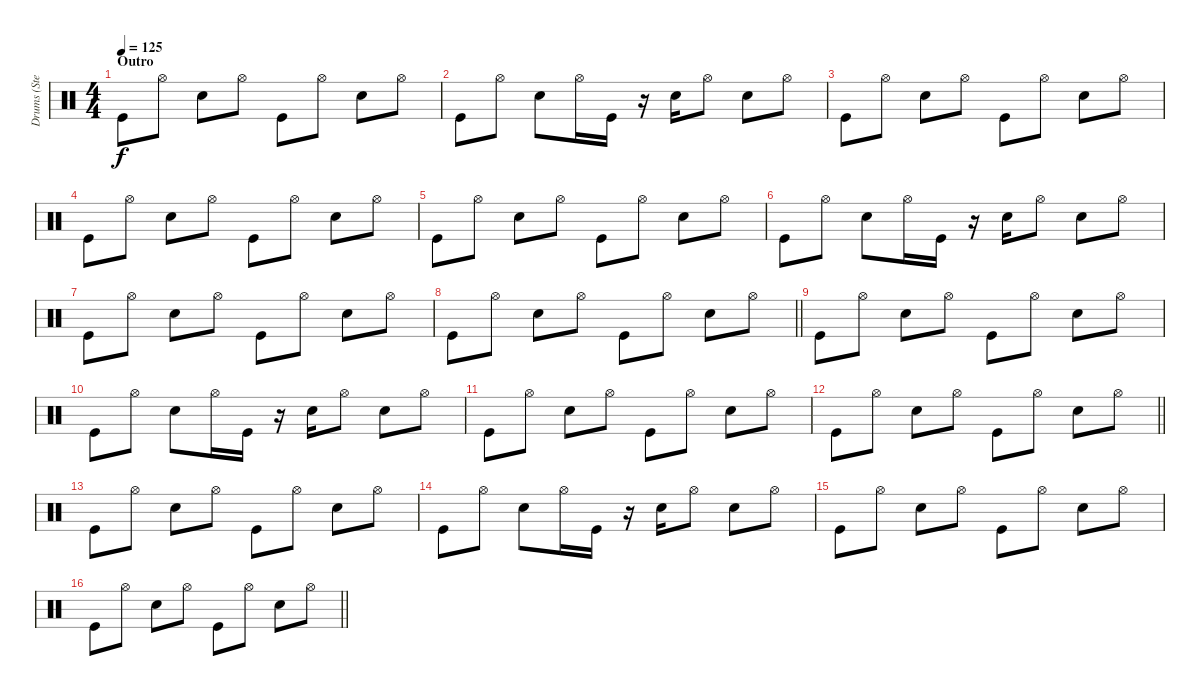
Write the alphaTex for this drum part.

\track ("Drums (Stephen Morris)" "Drums (Ste") {instrument percussion}
\staff {score}
\articulation defaults
\ts (4 4)
\section ("" "Outro")
\tempo 125
\clef neutral
\ks c "Kick (hit)".8{dy f volume 13} "Hi-Hat (open)".8 "Electric Snare (hit)".8 "Hi-Hat (open)".8 "Kick (hit)".8 "Hi-Hat (open)".8 "Electric Snare (hit)".8 "Hi-Hat (open)".8
|
"Kick (hit)".8 "Hi-Hat (open)".8 "Electric Snare (hit)".8 "Hi-Hat (open)".16 "Kick (hit)".16 r.16 "Electric Snare (hit)".16 "Hi-Hat (open)".8 "Electric Snare (hit)".8 "Hi-Hat (open)".8 |
"Kick (hit)".8 "Hi-Hat (open)".8 "Electric Snare (hit)".8 "Hi-Hat (open)".8 "Kick (hit)".8 "Hi-Hat (open)".8 "Electric Snare (hit)".8 "Hi-Hat (open)".8 |
"Kick (hit)".8 "Hi-Hat (open)".8 "Electric Snare (hit)".8 "Hi-Hat (open)".8 "Kick (hit)".8 "Hi-Hat (open)".8 "Electric Snare (hit)".8 "Hi-Hat (open)".8 |
"Kick (hit)".8 "Hi-Hat (open)".8 "Electric Snare (hit)".8 "Hi-Hat (open)".8 "Kick (hit)".8 "Hi-Hat (open)".8 "Electric Snare (hit)".8 "Hi-Hat (open)".8 |
"Kick (hit)".8 "Hi-Hat (open)".8 "Electric Snare (hit)".8 "Hi-Hat (open)".16 "Kick (hit)".16 r.16 "Electric Snare (hit)".16 "Hi-Hat (open)".8 "Electric Snare (hit)".8 "Hi-Hat (open)".8 |
"Kick (hit)".8 "Hi-Hat (open)".8 "Electric Snare (hit)".8 "Hi-Hat (open)".8 "Kick (hit)".8 "Hi-Hat (open)".8 "Electric Snare (hit)".8 "Hi-Hat (open)".8 |
\barLineRight lightlight "Kick (hit)".8 "Hi-Hat (open)".8 "Electric Snare (hit)".8 "Hi-Hat (open)".8 "Kick (hit)".8 "Hi-Hat (open)".8 "Electric Snare (hit)".8 "Hi-Hat (open)".8
|
"Kick (hit)".8 "Hi-Hat (open)".8 "Electric Snare (hit)".8 "Hi-Hat (open)".8 "Kick (hit)".8 "Hi-Hat (open)".8 "Electric Snare (hit)".8 "Hi-Hat (open)".8 |
"Kick (hit)".8 "Hi-Hat (open)".8 "Electric Snare (hit)".8 "Hi-Hat (open)".16 "Kick (hit)".16 r.16 "Electric Snare (hit)".16 "Hi-Hat (open)".8 "Electric Snare (hit)".8 "Hi-Hat (open)".8 |
"Kick (hit)".8 "Hi-Hat (open)".8 "Electric Snare (hit)".8 "Hi-Hat (open)".8 "Kick (hit)".8 "Hi-Hat (open)".8 "Electric Snare (hit)".8 "Hi-Hat (open)".8 |
\barLineRight lightlight "Kick (hit)".8 "Hi-Hat (open)".8 "Electric Snare (hit)".8 "Hi-Hat (open)".8 "Kick (hit)".8 "Hi-Hat (open)".8 "Electric Snare (hit)".8 "Hi-Hat (open)".8
|
"Kick (hit)".8 "Hi-Hat (open)".8 "Electric Snare (hit)".8 "Hi-Hat (open)".8 "Kick (hit)".8 "Hi-Hat (open)".8 "Electric Snare (hit)".8 "Hi-Hat (open)".8 |
"Kick (hit)".8 "Hi-Hat (open)".8 "Electric Snare (hit)".8 "Hi-Hat (open)".16 "Kick (hit)".16 r.16 "Electric Snare (hit)".16 "Hi-Hat (open)".8 "Electric Snare (hit)".8 "Hi-Hat (open)".8 |
"Kick (hit)".8 "Hi-Hat (open)".8 "Electric Snare (hit)".8 "Hi-Hat (open)".8 "Kick (hit)".8 "Hi-Hat (open)".8 "Electric Snare (hit)".8 "Hi-Hat (open)".8 |
\barLineRight lightlight "Kick (hit)".8 "Hi-Hat (open)".8 "Electric Snare (hit)".8 "Hi-Hat (open)".8 "Kick (hit)".8 "Hi-Hat (open)".8 "Electric Snare (hit)".8 "Hi-Hat (open)".8
